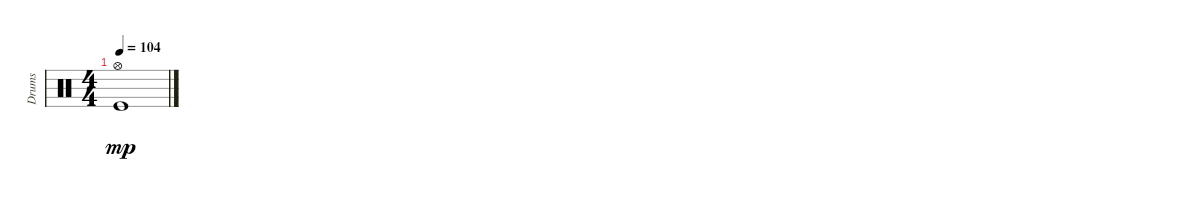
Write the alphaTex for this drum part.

\track ("Drums" "Drums") {instrument percussion}
\staff {score}
\articulation defaults
\ts (4 4)
\tempo 104
\clef neutral
\ks c
("Hi-Hat (open)" "Kick (hit)").1{dy mp}
